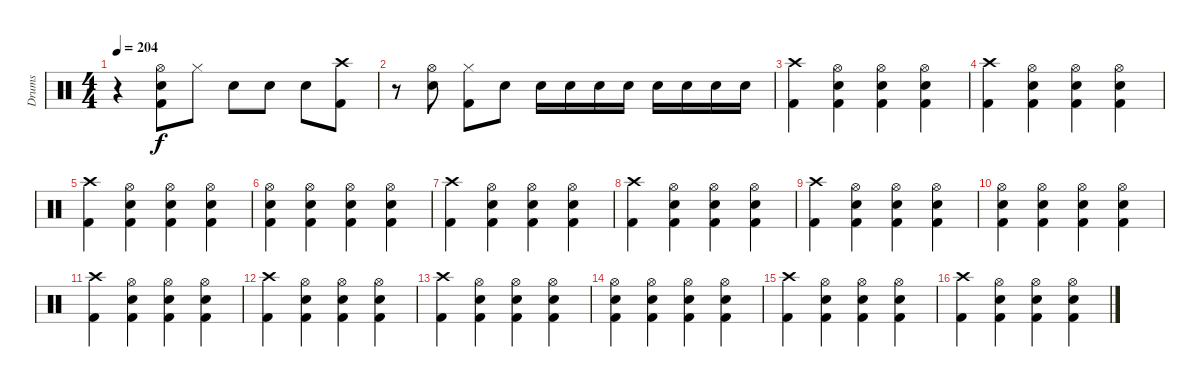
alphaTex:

\track ("Drums" "Drums") {instrument percussion}
\staff {score}
\articulation defaults
\ts (4 4)
\tempo 204
\clef neutral
\ks c
r.4{dy f} ("Electric Snare (hit)" "Kick (hit) 2" "Hi-Hat (open)").8 "Hi-Hat (closed)".8 "Electric Snare (hit)".8 "Electric Snare (hit)".8 "Electric Snare (hit)".8 ("Kick (hit) 2" "Crash high (hit)").8 |
r.8 ("Electric Snare (hit)" "Hi-Hat (open)").8 ("Kick (hit) 2" "Hi-Hat (closed)").8 "Electric Snare (hit)".8 "Electric Snare (hit)".16 "Electric Snare (hit)".16 "Electric Snare (hit)".16 "Electric Snare (hit)".16 "Electric Snare (hit)".16 "Electric Snare (hit)".16 "Electric Snare (hit)".16 "Electric Snare (hit)".16 |
("Kick (hit) 2" "Crash high (hit)").4 ("Electric Snare (hit)" "Hi-Hat (open)" "Kick (hit) 2").4 ("Electric Snare (hit)" "Hi-Hat (open)" "Kick (hit) 2").4 ("Electric Snare (hit)" "Hi-Hat (open)" "Kick (hit) 2").4 |
("Kick (hit) 2" "Crash high (hit)").4 ("Electric Snare (hit)" "Hi-Hat (open)" "Kick (hit) 2").4 ("Electric Snare (hit)" "Hi-Hat (open)" "Kick (hit) 2").4 ("Electric Snare (hit)" "Hi-Hat (open)" "Kick (hit) 2").4 |
("Kick (hit) 2" "Crash high (hit)").4 ("Electric Snare (hit)" "Hi-Hat (open)" "Kick (hit) 2").4 ("Electric Snare (hit)" "Hi-Hat (open)" "Kick (hit) 2").4 ("Electric Snare (hit)" "Hi-Hat (open)" "Kick (hit) 2").4 |
("Kick (hit) 2" "Hi-Hat (open)" "Electric Snare (hit)").4 ("Electric Snare (hit)" "Hi-Hat (open)" "Kick (hit) 2").4 ("Electric Snare (hit)" "Hi-Hat (open)" "Kick (hit) 2").4 ("Electric Snare (hit)" "Hi-Hat (open)" "Kick (hit) 2").4 |
("Kick (hit) 2" "Crash high (hit)").4 ("Electric Snare (hit)" "Hi-Hat (open)" "Kick (hit) 2").4 ("Electric Snare (hit)" "Hi-Hat (open)" "Kick (hit) 2").4 ("Electric Snare (hit)" "Hi-Hat (open)" "Kick (hit) 2").4 |
("Kick (hit) 2" "Crash high (hit)").4 ("Electric Snare (hit)" "Hi-Hat (open)" "Kick (hit) 2").4 ("Electric Snare (hit)" "Hi-Hat (open)" "Kick (hit) 2").4 ("Electric Snare (hit)" "Hi-Hat (open)" "Kick (hit) 2").4 |
("Kick (hit) 2" "Crash high (hit)").4 ("Electric Snare (hit)" "Hi-Hat (open)" "Kick (hit) 2").4 ("Electric Snare (hit)" "Hi-Hat (open)" "Kick (hit) 2").4 ("Electric Snare (hit)" "Hi-Hat (open)" "Kick (hit) 2").4 |
("Kick (hit) 2" "Hi-Hat (open)" "Electric Snare (hit)").4 ("Electric Snare (hit)" "Hi-Hat (open)" "Kick (hit) 2").4 ("Electric Snare (hit)" "Hi-Hat (open)" "Kick (hit) 2").4 ("Electric Snare (hit)" "Hi-Hat (open)" "Kick (hit) 2").4 |
("Kick (hit) 2" "Crash high (hit)").4 ("Electric Snare (hit)" "Hi-Hat (open)" "Kick (hit) 2").4 ("Electric Snare (hit)" "Hi-Hat (open)" "Kick (hit) 2").4 ("Electric Snare (hit)" "Hi-Hat (open)" "Kick (hit) 2").4 |
("Kick (hit) 2" "Crash high (hit)").4 ("Electric Snare (hit)" "Hi-Hat (open)" "Kick (hit) 2").4 ("Electric Snare (hit)" "Hi-Hat (open)" "Kick (hit) 2").4 ("Electric Snare (hit)" "Hi-Hat (open)" "Kick (hit) 2").4 |
("Kick (hit) 2" "Crash high (hit)").4 ("Electric Snare (hit)" "Hi-Hat (open)" "Kick (hit) 2").4 ("Electric Snare (hit)" "Hi-Hat (open)" "Kick (hit) 2").4 ("Electric Snare (hit)" "Hi-Hat (open)" "Kick (hit) 2").4 |
("Kick (hit) 2" "Hi-Hat (open)" "Electric Snare (hit)").4 ("Electric Snare (hit)" "Hi-Hat (open)" "Kick (hit) 2").4 ("Electric Snare (hit)" "Hi-Hat (open)" "Kick (hit) 2").4 ("Electric Snare (hit)" "Hi-Hat (open)" "Kick (hit) 2").4 |
("Kick (hit) 2" "Crash high (hit)").4 ("Electric Snare (hit)" "Hi-Hat (open)" "Kick (hit) 2").4 ("Electric Snare (hit)" "Hi-Hat (open)" "Kick (hit) 2").4 ("Electric Snare (hit)" "Hi-Hat (open)" "Kick (hit) 2").4 |
("Kick (hit) 2" "Crash high (hit)").4 ("Electric Snare (hit)" "Hi-Hat (open)" "Kick (hit) 2").4 ("Electric Snare (hit)" "Hi-Hat (open)" "Kick (hit) 2").4 ("Electric Snare (hit)" "Hi-Hat (open)" "Kick (hit) 2").4
